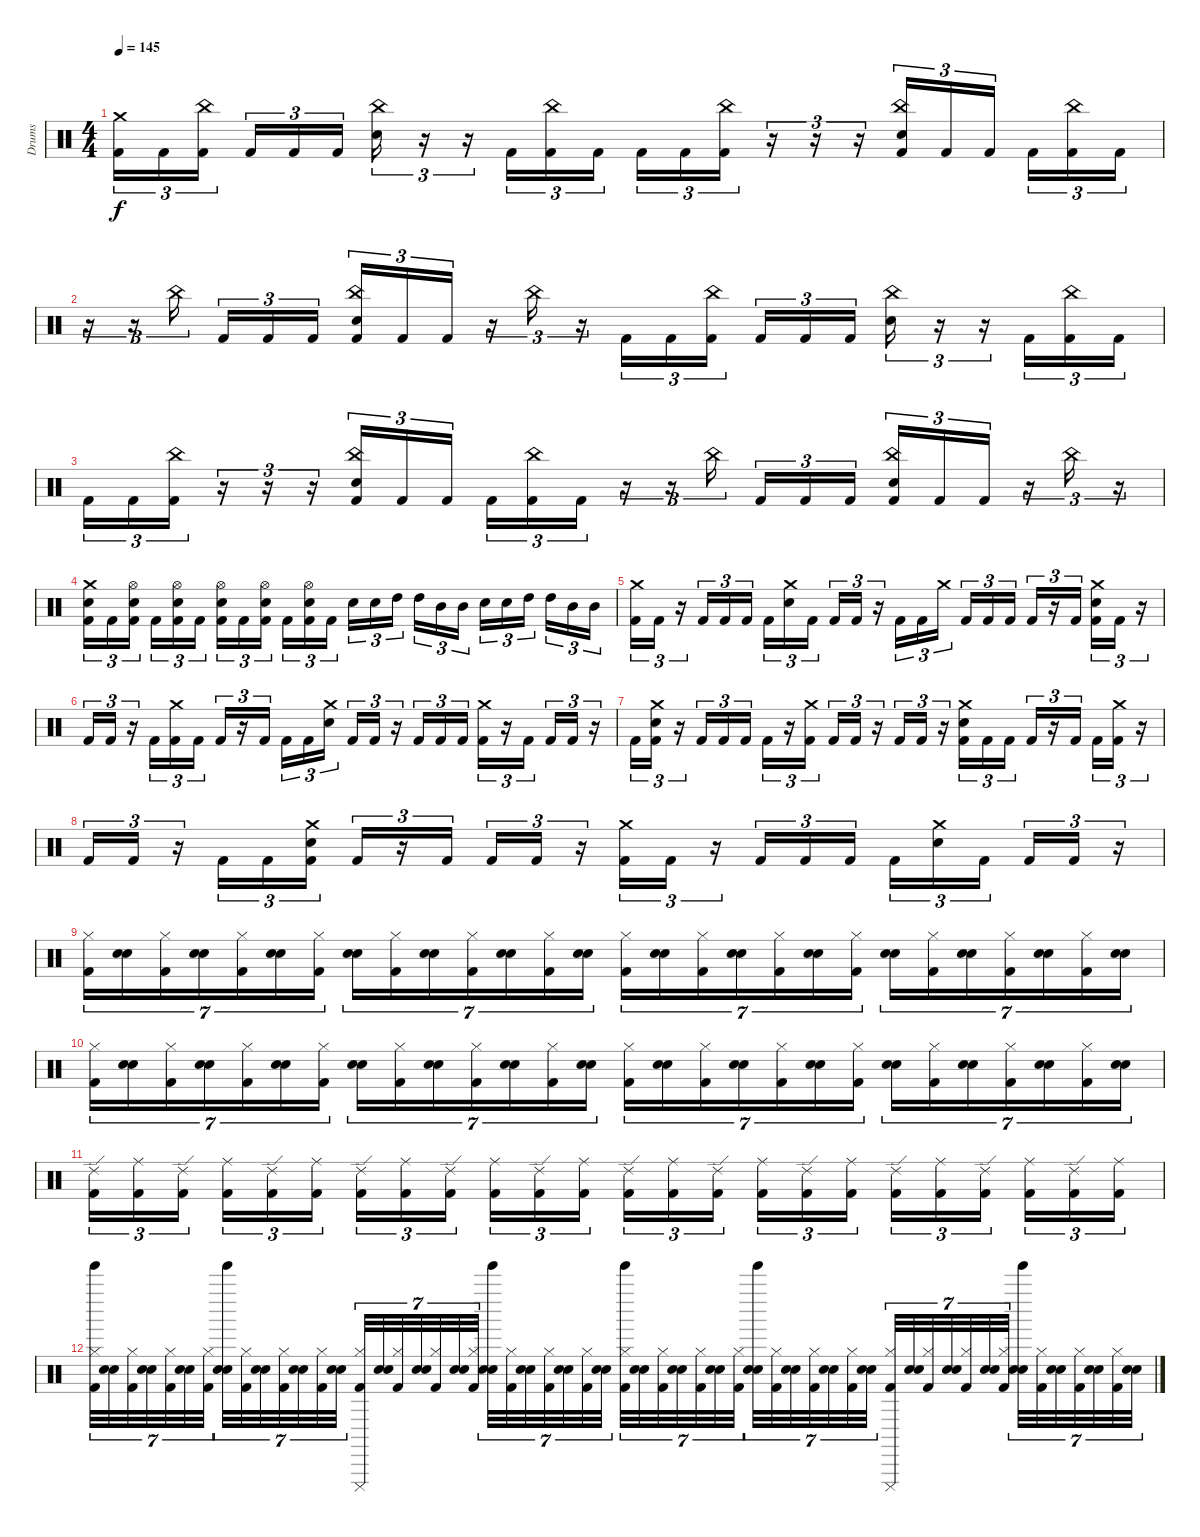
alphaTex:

\track ("Drums" "Drums") {instrument percussion}
\staff {score}
\articulation defaults
\ts (4 4)
\tempo 145
\clef neutral
\ks c
("Crash medium (hit)" "Kick (hit) 2").16{tu (3 2) dy f} "Kick (hit) 2".16{tu (3 2)} ("China (hit)" "Kick (hit) 2").16{tu (3 2) beam splitsecondary} "Kick (hit) 2".16{tu (3 2)} "Kick (hit) 2".16{tu (3 2)} "Kick (hit) 2".16{tu (3 2)} ("China (hit)" "Electric Snare (hit)").16{tu (3 2)} r.16{tu (3 2)} r.16{tu (3 2)} "Kick (hit) 2".16{tu (3 2)} ("China (hit)" "Kick (hit) 2").16{tu (3 2)} "Kick (hit) 2".16{tu (3 2)} "Kick (hit) 2".16{tu (3 2)} "Kick (hit) 2".16{tu (3 2)} ("China (hit)" "Kick (hit) 2").16{tu (3 2)} r.16{tu (3 2)} r.16{tu (3 2)} r.16{tu (3 2)} ("China (hit)" "Electric Snare (hit)" "Kick (hit) 2").16{tu (3 2)} "Kick (hit) 2".16{tu (3 2)} "Kick (hit) 2".16{tu (3 2) beam splitsecondary} "Kick (hit) 2".16{tu (3 2)} ("China (hit)" "Kick (hit) 2").16{tu (3 2)} "Kick (hit) 2".16{tu (3 2)} |
r.16{tu (3 2)} r.16{tu (3 2)} "China (hit)".16{tu (3 2) beam splitsecondary} "Kick (hit) 2".16{tu (3 2)} "Kick (hit) 2".16{tu (3 2)} "Kick (hit) 2".16{tu (3 2)} ("China (hit)" "Electric Snare (hit)" "Kick (hit) 2").16{tu (3 2)} "Kick (hit) 2".16{tu (3 2)} "Kick (hit) 2".16{tu (3 2)} r.16{tu (3 2)} "China (hit)".16{tu (3 2)} r.16{tu (3 2)} "Kick (hit) 2".16{tu (3 2)} "Kick (hit) 2".16{tu (3 2)} ("China (hit)" "Kick (hit) 2").16{tu (3 2) beam splitsecondary} "Kick (hit) 2".16{tu (3 2)} "Kick (hit) 2".16{tu (3 2)} "Kick (hit) 2".16{tu (3 2)} ("China (hit)" "Electric Snare (hit)").16{tu (3 2)} r.16{tu (3 2)} r.16{tu (3 2)} "Kick (hit) 2".16{tu (3 2)} ("China (hit)" "Kick (hit) 2").16{tu (3 2)} "Kick (hit) 2".16{tu (3 2)} |
"Kick (hit) 2".16{tu (3 2)} "Kick (hit) 2".16{tu (3 2)} ("China (hit)" "Kick (hit) 2").16{tu (3 2)} r.16{tu (3 2)} r.16{tu (3 2)} r.16{tu (3 2)} ("China (hit)" "Electric Snare (hit)" "Kick (hit) 2").16{tu (3 2)} "Kick (hit) 2".16{tu (3 2)} "Kick (hit) 2".16{tu (3 2) beam splitsecondary} "Kick (hit) 2".16{tu (3 2)} ("China (hit)" "Kick (hit) 2").16{tu (3 2)} "Kick (hit) 2".16{tu (3 2)} r.16{tu (3 2)} r.16{tu (3 2)} "China (hit)".16{tu (3 2) beam splitsecondary} "Kick (hit) 2".16{tu (3 2)} "Kick (hit) 2".16{tu (3 2)} "Kick (hit) 2".16{tu (3 2)} ("China (hit)" "Electric Snare (hit)" "Kick (hit) 2").16{tu (3 2)} "Kick (hit) 2".16{tu (3 2)} "Kick (hit) 2".16{tu (3 2)} r.16{tu (3 2)} "China (hit)".16{tu (3 2)} r.16{tu (3 2)} |
("Crash medium (hit)" "Electric Snare (hit)" "Kick (hit) 2").16{tu (3 2)} "Kick (hit) 2".16{tu (3 2)} ("Hi-Hat (open)" "Electric Snare (hit)" "Kick (hit) 2").16{tu (3 2) beam splitsecondary} "Kick (hit) 2".16{tu (3 2)} ("Hi-Hat (open)" "Electric Snare (hit)" "Kick (hit) 2").16{tu (3 2)} "Kick (hit) 2".16{tu (3 2)} ("Hi-Hat (open)" "Electric Snare (hit)" "Kick (hit) 2").16{tu (3 2)} "Kick (hit) 2".16{tu (3 2)} ("Hi-Hat (open)" "Electric Snare (hit)" "Kick (hit) 2").16{tu (3 2) beam splitsecondary} "Kick (hit) 2".16{tu (3 2)} ("Hi-Hat (open)" "Electric Snare (hit)" "Kick (hit) 2").16{tu (3 2)} "Kick (hit) 2".16{tu (3 2)} "Electric Snare (hit)".16{tu (3 2)} "Electric Snare (hit)".16{tu (3 2)} "High Tom (hit)".16{tu (3 2) beam splitsecondary} "High Tom (hit)".16{tu (3 2)} "Mid Tom (hit)".16{tu (3 2)} "Mid Tom (hit)".16{tu (3 2)} "Electric Snare (hit)".16{tu (3 2)} "Electric Snare (hit)".16{tu (3 2)} "High Tom (hit)".16{tu (3 2) beam splitsecondary} "High Tom (hit)".16{tu (3 2)} "Mid Tom (hit)".16{tu (3 2)} "Mid Tom (hit)".16{tu (3 2)} |
("Crash medium (hit)" "Kick (hit) 2").16{tu (3 2)} "Kick (hit) 2".16{tu (3 2)} r.16{tu (3 2)} "Kick (hit) 2".16{tu (3 2)} "Kick (hit) 2".16{tu (3 2)} "Kick (hit) 2".16{tu (3 2)} "Kick (hit) 2".16{tu (3 2)} ("Crash medium (hit)" "Electric Snare (hit)").16{tu (3 2)} "Kick (hit) 2".16{tu (3 2) beam splitsecondary} "Kick (hit) 2".16{tu (3 2)} "Kick (hit) 2".16{tu (3 2)} r.16{tu (3 2)} "Kick (hit) 2".16{tu (3 2)} "Kick (hit) 2".16{tu (3 2)} "Crash medium (hit)".16{tu (3 2) beam splitsecondary} "Kick (hit) 2".16{tu (3 2)} "Kick (hit) 2".16{tu (3 2)} "Kick (hit) 2".16{tu (3 2)} "Kick (hit) 2".16{tu (3 2)} r.16{tu (3 2)} "Kick (hit) 2".16{tu (3 2) beam splitsecondary} ("Crash medium (hit)" "Electric Snare (hit)" "Kick (hit) 2").16{tu (3 2)} "Kick (hit) 2".16{tu (3 2)} r.16{tu (3 2)} |
"Kick (hit) 2".16{tu (3 2)} "Kick (hit) 2".16{tu (3 2)} r.16{tu (3 2)} "Kick (hit) 2".16{tu (3 2)} ("Crash medium (hit)" "Kick (hit) 2").16{tu (3 2)} "Kick (hit) 2".16{tu (3 2)} "Kick (hit) 2".16{tu (3 2)} r.16{tu (3 2)} "Kick (hit) 2".16{tu (3 2) beam splitsecondary} "Kick (hit) 2".16{tu (3 2)} "Kick (hit) 2".16{tu (3 2)} ("Crash medium (hit)" "Electric Snare (hit)").16{tu (3 2)} "Kick (hit) 2".16{tu (3 2)} "Kick (hit) 2".16{tu (3 2)} r.16{tu (3 2)} "Kick (hit) 2".16{tu (3 2)} "Kick (hit) 2".16{tu (3 2)} "Kick (hit) 2".16{tu (3 2)} ("Crash medium (hit)" "Kick (hit) 2").16{tu (3 2)} r.16{tu (3 2)} "Kick (hit) 2".16{tu (3 2) beam splitsecondary} "Kick (hit) 2".16{tu (3 2)} "Kick (hit) 2".16{tu (3 2)} r.16{tu (3 2)} |
"Kick (hit) 2".16{tu (3 2)} ("Crash medium (hit)" "Electric Snare (hit)" "Kick (hit) 2").16{tu (3 2)} r.16{tu (3 2)} "Kick (hit) 2".16{tu (3 2)} "Kick (hit) 2".16{tu (3 2)} "Kick (hit) 2".16{tu (3 2)} "Kick (hit) 2".16{tu (3 2)} r.16{tu (3 2)} ("Crash medium (hit)" "Kick (hit) 2").16{tu (3 2) beam splitsecondary} "Kick (hit) 2".16{tu (3 2)} "Kick (hit) 2".16{tu (3 2)} r.16{tu (3 2)} "Kick (hit) 2".16{tu (3 2)} "Kick (hit) 2".16{tu (3 2)} r.16{tu (3 2)} ("Crash medium (hit)" "Electric Snare (hit)" "Kick (hit) 2").16{tu (3 2)} "Kick (hit) 2".16{tu (3 2)} "Kick (hit) 2".16{tu (3 2)} "Kick (hit) 2".16{tu (3 2)} r.16{tu (3 2)} "Kick (hit) 2".16{tu (3 2) beam splitsecondary} "Kick (hit) 2".16{tu (3 2)} ("Crash medium (hit)" "Kick (hit) 2").16{tu (3 2)} r.16{tu (3 2)} |
"Kick (hit) 2".16{tu (3 2)} "Kick (hit) 2".16{tu (3 2)} r.16{tu (3 2)} "Kick (hit) 2".16{tu (3 2)} "Kick (hit) 2".16{tu (3 2)} ("Crash medium (hit)" "Electric Snare (hit)" "Kick (hit) 2").16{tu (3 2)} "Kick (hit) 2".16{tu (3 2)} r.16{tu (3 2)} "Kick (hit) 2".16{tu (3 2) beam splitsecondary} "Kick (hit) 2".16{tu (3 2)} "Kick (hit) 2".16{tu (3 2)} r.16{tu (3 2)} ("Crash medium (hit)" "Kick (hit) 2").16{tu (3 2)} "Kick (hit) 2".16{tu (3 2)} r.16{tu (3 2)} "Kick (hit) 2".16{tu (3 2)} "Kick (hit) 2".16{tu (3 2)} "Kick (hit) 2".16{tu (3 2)} "Kick (hit) 2".16{tu (3 2)} ("Crash medium (hit)" "Electric Snare (hit)").16{tu (3 2)} "Kick (hit) 2".16{tu (3 2) beam splitsecondary} "Kick (hit) 2".16{tu (3 2)} "Kick (hit) 2".16{tu (3 2)} r.16{tu (3 2)} |
("Hi-Hat (closed)" "Kick (hit) 2").16{tu (7 4)} ("Hand Clap (hit)" "Electric Snare (hit)").16{tu (7 4)} ("Hi-Hat (closed)" "Kick (hit) 2").16{tu (7 4)} ("Hand Clap (hit)" "Electric Snare (hit)").16{tu (7 4)} ("Hi-Hat (closed)" "Kick (hit) 2").16{tu (7 4)} ("Hand Clap (hit)" "Electric Snare (hit)").16{tu (7 4)} ("Hi-Hat (closed)" "Kick (hit) 2").16{tu (7 4)} ("Hand Clap (hit)" "Electric Snare (hit)").16{tu (7 4)} ("Hi-Hat (closed)" "Kick (hit) 2").16{tu (7 4)} ("Hand Clap (hit)" "Electric Snare (hit)").16{tu (7 4)} ("Hi-Hat (closed)" "Kick (hit) 2").16{tu (7 4)} ("Hand Clap (hit)" "Electric Snare (hit)").16{tu (7 4)} ("Hi-Hat (closed)" "Kick (hit) 2").16{tu (7 4)} ("Hand Clap (hit)" "Electric Snare (hit)").16{tu (7 4)} ("Hi-Hat (closed)" "Kick (hit) 2").16{tu (7 4)} ("Hand Clap (hit)" "Electric Snare (hit)").16{tu (7 4)} ("Hi-Hat (closed)" "Kick (hit) 2").16{tu (7 4)} ("Hand Clap (hit)" "Electric Snare (hit)").16{tu (7 4)} ("Hi-Hat (closed)" "Kick (hit) 2").16{tu (7 4)} ("Hand Clap (hit)" "Electric Snare (hit)").16{tu (7 4)} ("Hi-Hat (closed)" "Kick (hit) 2").16{tu (7 4)} ("Hand Clap (hit)" "Electric Snare (hit)").16{tu (7 4)} ("Hi-Hat (closed)" "Kick (hit) 2").16{tu (7 4)} ("Hand Clap (hit)" "Electric Snare (hit)").16{tu (7 4)} ("Hi-Hat (closed)" "Kick (hit) 2").16{tu (7 4)} ("Hand Clap (hit)" "Electric Snare (hit)").16{tu (7 4)} ("Hi-Hat (closed)" "Kick (hit) 2").16{tu (7 4)} ("Hand Clap (hit)" "Electric Snare (hit)").16{tu (7 4)} |
("Hi-Hat (closed)" "Kick (hit) 2").16{tu (7 4)} ("Hand Clap (hit)" "Electric Snare (hit)").16{tu (7 4)} ("Hi-Hat (closed)" "Kick (hit) 2").16{tu (7 4)} ("Hand Clap (hit)" "Electric Snare (hit)").16{tu (7 4)} ("Hi-Hat (closed)" "Kick (hit) 2").16{tu (7 4)} ("Hand Clap (hit)" "Electric Snare (hit)").16{tu (7 4)} ("Hi-Hat (closed)" "Kick (hit) 2").16{tu (7 4)} ("Hand Clap (hit)" "Electric Snare (hit)").16{tu (7 4)} ("Hi-Hat (closed)" "Kick (hit) 2").16{tu (7 4)} ("Hand Clap (hit)" "Electric Snare (hit)").16{tu (7 4)} ("Hi-Hat (closed)" "Kick (hit) 2").16{tu (7 4)} ("Hand Clap (hit)" "Electric Snare (hit)").16{tu (7 4)} ("Hi-Hat (closed)" "Kick (hit) 2").16{tu (7 4)} ("Hand Clap (hit)" "Electric Snare (hit)").16{tu (7 4)} ("Hi-Hat (closed)" "Kick (hit) 2").16{tu (7 4)} ("Hand Clap (hit)" "Electric Snare (hit)").16{tu (7 4)} ("Hi-Hat (closed)" "Kick (hit) 2").16{tu (7 4)} ("Hand Clap (hit)" "Electric Snare (hit)").16{tu (7 4)} ("Hi-Hat (closed)" "Kick (hit) 2").16{tu (7 4)} ("Hand Clap (hit)" "Electric Snare (hit)").16{tu (7 4)} ("Hi-Hat (closed)" "Kick (hit) 2").16{tu (7 4)} ("Hand Clap (hit)" "Electric Snare (hit)").16{tu (7 4)} ("Hi-Hat (closed)" "Kick (hit) 2").16{tu (7 4)} ("Hand Clap (hit)" "Electric Snare (hit)").16{tu (7 4)} ("Hi-Hat (closed)" "Kick (hit) 2").16{tu (7 4)} ("Hand Clap (hit)" "Electric Snare (hit)").16{tu (7 4)} ("Hi-Hat (closed)" "Kick (hit) 2").16{tu (7 4)} ("Hand Clap (hit)" "Electric Snare (hit)").16{tu (7 4)} |
("Ride (edge) 2" "Kick (hit) 2").16{tu (3 2)} ("Ride (middle)" "Kick (hit) 2").16{tu (3 2)} ("Ride (edge) 2" "Kick (hit) 2").16{tu (3 2) beam splitsecondary} ("Ride (middle)" "Kick (hit) 2").16{tu (3 2)} ("Ride (edge) 2" "Kick (hit) 2").16{tu (3 2)} ("Ride (middle)" "Kick (hit) 2").16{tu (3 2)} ("Ride (edge) 2" "Kick (hit) 2").16{tu (3 2)} ("Ride (middle)" "Kick (hit) 2").16{tu (3 2)} ("Ride (edge) 2" "Kick (hit) 2").16{tu (3 2) beam splitsecondary} ("Ride (middle)" "Kick (hit) 2").16{tu (3 2)} ("Ride (edge) 2" "Kick (hit) 2").16{tu (3 2)} ("Ride (middle)" "Kick (hit) 2").16{tu (3 2)} ("Ride (edge) 2" "Kick (hit) 2").16{tu (3 2)} ("Ride (middle)" "Kick (hit) 2").16{tu (3 2)} ("Ride (edge) 2" "Kick (hit) 2").16{tu (3 2) beam splitsecondary} ("Ride (middle)" "Kick (hit) 2").16{tu (3 2)} ("Ride (edge) 2" "Kick (hit) 2").16{tu (3 2)} ("Ride (middle)" "Kick (hit) 2").16{tu (3 2)} ("Ride (edge) 2" "Kick (hit) 2").16{tu (3 2)} ("Ride (middle)" "Kick (hit) 2").16{tu (3 2)} ("Ride (edge) 2" "Kick (hit) 2").16{tu (3 2) beam splitsecondary} ("Ride (middle)" "Kick (hit) 2").16{tu (3 2)} ("Ride (edge) 2" "Kick (hit) 2").16{tu (3 2)} ("Ride (middle)" "Kick (hit) 2").16{tu (3 2)} |
("Tinkle Bell (hit)" "Hi-Hat (closed)" "Kick (hit) 2").32{tu (7 4)} ("Hand Clap (hit)" "Electric Snare (hit)").32{tu (7 4)} ("Hi-Hat (closed)" "Kick (hit) 2").32{tu (7 4)} ("Hand Clap (hit)" "Electric Snare (hit)").32{tu (7 4)} ("Hi-Hat (closed)" "Kick (hit) 2").32{tu (7 4)} ("Hand Clap (hit)" "Electric Snare (hit)").32{tu (7 4)} ("Hi-Hat (closed)" "Kick (hit) 2").32{tu (7 4) beam splitsecondary} ("Tinkle Bell (hit)" "Hand Clap (hit)" "Electric Snare (hit)").32{tu (7 4)} ("Hi-Hat (closed)" "Kick (hit) 2").32{tu (7 4)} ("Hand Clap (hit)" "Electric Snare (hit)").32{tu (7 4)} ("Hi-Hat (closed)" "Kick (hit) 2").32{tu (7 4)} ("Hand Clap (hit)" "Electric Snare (hit)").32{tu (7 4)} ("Hi-Hat (closed)" "Kick (hit) 2").32{tu (7 4)} ("Hand Clap (hit)" "Electric Snare (hit)").32{tu (7 4)} ("Cuica (mute)" "Hi-Hat (closed)" "Kick (hit) 2").32{tu (7 4)} ("Hand Clap (hit)" "Electric Snare (hit)").32{tu (7 4)} ("Hi-Hat (closed)" "Kick (hit) 2").32{tu (7 4)} ("Hand Clap (hit)" "Electric Snare (hit)").32{tu (7 4)} ("Hi-Hat (closed)" "Kick (hit) 2").32{tu (7 4)} ("Hand Clap (hit)" "Electric Snare (hit)").32{tu (7 4)} ("Hi-Hat (closed)" "Kick (hit) 2").32{tu (7 4) beam splitsecondary} ("Tinkle Bell (hit)" "Hand Clap (hit)" "Electric Snare (hit)").32{tu (7 4)} ("Hi-Hat (closed)" "Kick (hit) 2").32{tu (7 4)} ("Hand Clap (hit)" "Electric Snare (hit)").32{tu (7 4)} ("Hi-Hat (closed)" "Kick (hit) 2").32{tu (7 4)} ("Hand Clap (hit)" "Electric Snare (hit)").32{tu (7 4)} ("Hi-Hat (closed)" "Kick (hit) 2").32{tu (7 4)} ("Hand Clap (hit)" "Electric Snare (hit)").32{tu (7 4)} ("Tinkle Bell (hit)" "Hi-Hat (closed)" "Kick (hit) 2").32{tu (7 4)} ("Hand Clap (hit)" "Electric Snare (hit)").32{tu (7 4)} ("Hi-Hat (closed)" "Kick (hit) 2").32{tu (7 4)} ("Hand Clap (hit)" "Electric Snare (hit)").32{tu (7 4)} ("Hi-Hat (closed)" "Kick (hit) 2").32{tu (7 4)} ("Hand Clap (hit)" "Electric Snare (hit)").32{tu (7 4)} ("Hi-Hat (closed)" "Kick (hit) 2").32{tu (7 4) beam splitsecondary} ("Tinkle Bell (hit)" "Hand Clap (hit)" "Electric Snare (hit)").32{tu (7 4)} ("Hi-Hat (closed)" "Kick (hit) 2").32{tu (7 4)} ("Hand Clap (hit)" "Electric Snare (hit)").32{tu (7 4)} ("Hi-Hat (closed)" "Kick (hit) 2").32{tu (7 4)} ("Hand Clap (hit)" "Electric Snare (hit)").32{tu (7 4)} ("Hi-Hat (closed)" "Kick (hit) 2").32{tu (7 4)} ("Hand Clap (hit)" "Electric Snare (hit)").32{tu (7 4)} ("Cuica (mute)" "Hi-Hat (closed)" "Kick (hit) 2").32{tu (7 4)} ("Hand Clap (hit)" "Electric Snare (hit)").32{tu (7 4)} ("Hi-Hat (closed)" "Kick (hit) 2").32{tu (7 4)} ("Hand Clap (hit)" "Electric Snare (hit)").32{tu (7 4)} ("Hi-Hat (closed)" "Kick (hit) 2").32{tu (7 4)} ("Hand Clap (hit)" "Electric Snare (hit)").32{tu (7 4)} ("Hi-Hat (closed)" "Kick (hit) 2").32{tu (7 4) beam splitsecondary} ("Tinkle Bell (hit)" "Hand Clap (hit)" "Electric Snare (hit)").32{tu (7 4)} ("Hi-Hat (closed)" "Kick (hit) 2").32{tu (7 4)} ("Hand Clap (hit)" "Electric Snare (hit)").32{tu (7 4)} ("Hi-Hat (closed)" "Kick (hit) 2").32{tu (7 4)} ("Hand Clap (hit)" "Electric Snare (hit)").32{tu (7 4)} ("Hi-Hat (closed)" "Kick (hit) 2").32{tu (7 4)} ("Hand Clap (hit)" "Electric Snare (hit)").32{tu (7 4)}
